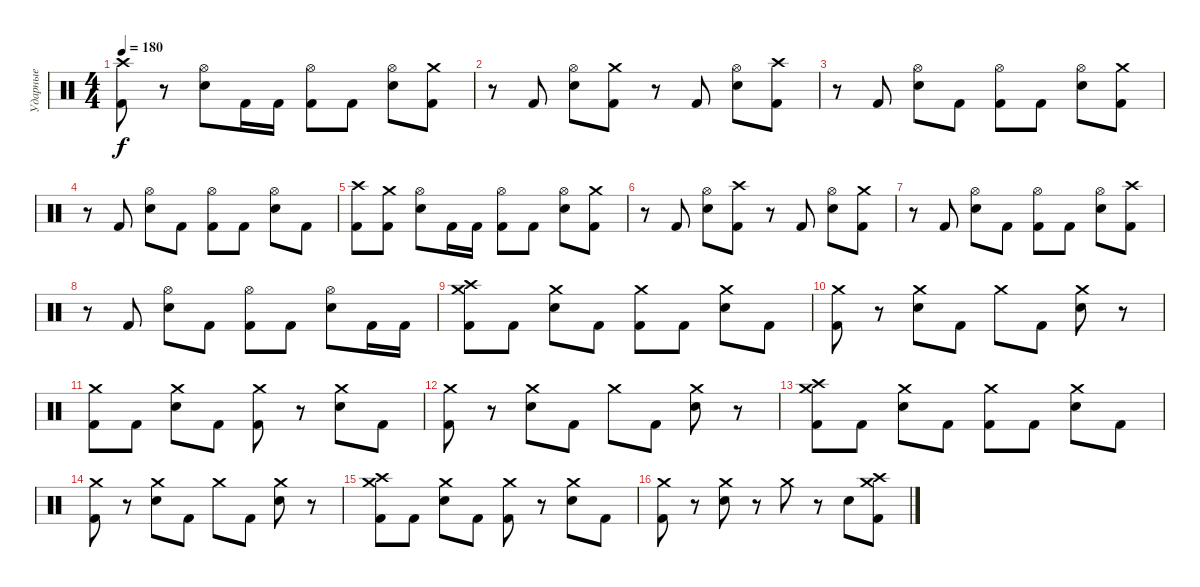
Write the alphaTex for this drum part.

\track ("Ударные" "Ударные") {instrument percussion}
\staff {score}
\articulation defaults
\ts (4 4)
\tempo 180
\clef neutral
\ks c
("Crash high (hit)" "Kick (hit) 2").8{dy f} r.8 ("Hi-Hat (open)" "Electric Snare (hit)").8 "Kick (hit) 2".16 "Kick (hit) 2".16 ("Hi-Hat (open)" "Kick (hit) 2").8 "Kick (hit) 2".8 ("Hi-Hat (open)" "Electric Snare (hit)").8 ("Crash medium (hit)" "Kick (hit) 2").8 |
r.8 "Kick (hit) 2".8 ("Hi-Hat (open)" "Electric Snare (hit)").8 ("Crash medium (hit)" "Kick (hit) 2").8 r.8 "Kick (hit) 2".8 ("Hi-Hat (open)" "Electric Snare (hit)").8 ("Crash high (hit)" "Kick (hit) 2").8 |
r.8 "Kick (hit) 2".8 ("Hi-Hat (open)" "Electric Snare (hit)").8 "Kick (hit) 2".8 ("Hi-Hat (open)" "Kick (hit) 2").8 "Kick (hit) 2".8 ("Hi-Hat (open)" "Electric Snare (hit)").8 ("Crash medium (hit)" "Kick (hit) 2").8 |
r.8 "Kick (hit) 2".8 ("Hi-Hat (open)" "Electric Snare (hit)").8 "Kick (hit) 2".8 ("Hi-Hat (open)" "Kick (hit) 2").8 "Kick (hit) 2".8 ("Hi-Hat (open)" "Electric Snare (hit)").8 "Kick (hit) 2".8 |
("Crash high (hit)" "Kick (hit) 2").8 ("Crash medium (hit)" "Kick (hit) 2").8 ("Hi-Hat (open)" "Electric Snare (hit)").8 "Kick (hit) 2".16 "Kick (hit) 2".16 ("Hi-Hat (open)" "Kick (hit) 2").8 "Kick (hit) 2".8 ("Hi-Hat (open)" "Electric Snare (hit)").8 ("Crash medium (hit)" "Kick (hit) 2").8 |
r.8 "Kick (hit) 2".8 ("Hi-Hat (open)" "Electric Snare (hit)").8 ("Crash high (hit)" "Kick (hit) 2").8 r.8 "Kick (hit) 2".8 ("Hi-Hat (open)" "Electric Snare (hit)").8 ("Crash medium (hit)" "Kick (hit) 2").8 |
r.8 "Kick (hit) 2".8 ("Hi-Hat (open)" "Electric Snare (hit)").8 "Kick (hit) 2".8 ("Hi-Hat (open)" "Kick (hit) 2").8 "Kick (hit) 2".8 ("Hi-Hat (open)" "Electric Snare (hit)").8 ("Crash high (hit)" "Kick (hit) 2").8 |
r.8 "Kick (hit) 2".8 ("Hi-Hat (open)" "Electric Snare (hit)").8 "Kick (hit) 2".8 ("Hi-Hat (open)" "Kick (hit) 2").8 "Kick (hit) 2".8 ("Hi-Hat (open)" "Electric Snare (hit)").8 "Kick (hit) 2".16 "Kick (hit) 2".16 |
("Crash high (hit)" "Crash medium (hit)" "Kick (hit) 2").8 "Kick (hit) 2".8 ("Crash medium (hit)" "Electric Snare (hit)").8 "Kick (hit) 2".8 ("Crash medium (hit)" "Kick (hit) 2").8 "Kick (hit) 2".8 ("Crash medium (hit)" "Electric Snare (hit)").8 "Kick (hit) 2".8 |
("Crash medium (hit)" "Kick (hit) 2").8 r.8 ("Crash medium (hit)" "Electric Snare (hit)").8 "Kick (hit) 2".8 "Crash medium (hit)".8 "Kick (hit) 2".8 ("Crash medium (hit)" "Electric Snare (hit)").8 r.8 |
("Crash medium (hit)" "Kick (hit) 2").8 "Kick (hit) 2".8 ("Crash medium (hit)" "Electric Snare (hit)").8 "Kick (hit) 2".8 ("Crash medium (hit)" "Kick (hit) 2").8 r.8 ("Crash medium (hit)" "Electric Snare (hit)").8 "Kick (hit) 2".8 |
("Crash medium (hit)" "Kick (hit) 2").8 r.8 ("Crash medium (hit)" "Electric Snare (hit)").8 "Kick (hit) 2".8 "Crash medium (hit)".8 "Kick (hit) 2".8 ("Crash medium (hit)" "Electric Snare (hit)").8 r.8 |
("Crash medium (hit)" "Crash high (hit)" "Kick (hit) 2").8 "Kick (hit) 2".8 ("Crash medium (hit)" "Electric Snare (hit)").8 "Kick (hit) 2".8 ("Crash medium (hit)" "Kick (hit) 2").8 "Kick (hit) 2".8 ("Crash medium (hit)" "Electric Snare (hit)").8 "Kick (hit) 2".8 |
("Crash medium (hit)" "Kick (hit) 2").8 r.8 ("Crash medium (hit)" "Electric Snare (hit)").8 "Kick (hit) 2".8 "Crash medium (hit)".8 "Kick (hit) 2".8 ("Crash medium (hit)" "Electric Snare (hit)").8 r.8 |
("Crash medium (hit)" "Crash high (hit)" "Kick (hit) 2").8 "Kick (hit) 2".8 ("Crash medium (hit)" "Electric Snare (hit)").8 "Kick (hit) 2".8 ("Crash medium (hit)" "Kick (hit) 2").8 r.8 ("Crash medium (hit)" "Electric Snare (hit)").8 "Kick (hit) 2".8 |
("Crash medium (hit)" "Kick (hit) 2").8 r.8 ("Crash medium (hit)" "Electric Snare (hit)").8 r.8 "Crash medium (hit)".8 r.8 "Electric Snare (hit)".8 ("Crash high (hit)" "Crash medium (hit)" "Kick (hit) 2").8
